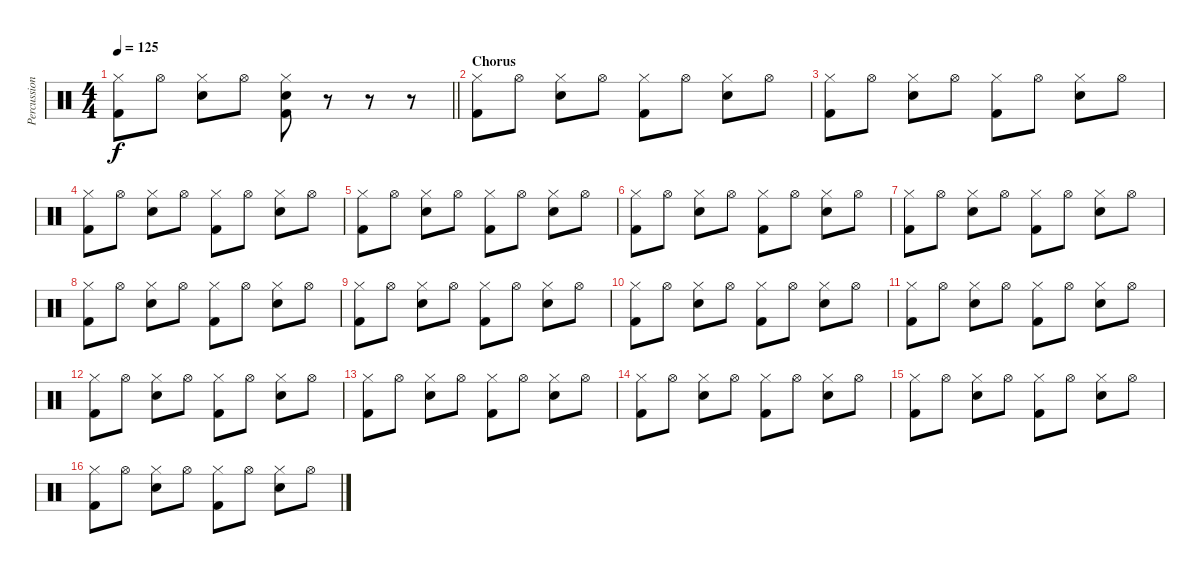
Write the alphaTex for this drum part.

\track ("Percussion" "Percussion") {instrument percussion}
\staff {score}
\articulation defaults
\ts (4 4)
\tempo 125
\clef neutral
\barLineRight lightlight
\ks c
("Hi-Hat (closed)" "Kick (hit) 2").8{dy f} "Hi-Hat (open)".8 ("Hi-Hat (closed)" "Snare (hit) 2").8 "Hi-Hat (open)".8 ("Hi-Hat (closed)" "Snare (hit) 2" "Kick (hit) 2").8 r.8 r.8 r.8 |
\section ("" "Chorus")
("Hi-Hat (closed)" "Kick (hit) 2").8 "Hi-Hat (open)".8 ("Hi-Hat (closed)" "Snare (hit) 2").8 "Hi-Hat (open)".8 ("Hi-Hat (closed)" "Kick (hit) 2").8 "Hi-Hat (open)".8 ("Hi-Hat (closed)" "Snare (hit) 2").8 "Hi-Hat (open)".8 |
("Hi-Hat (closed)" "Kick (hit) 2").8 "Hi-Hat (open)".8 ("Hi-Hat (closed)" "Snare (hit) 2").8 "Hi-Hat (open)".8 ("Hi-Hat (closed)" "Kick (hit) 2").8 "Hi-Hat (open)".8 ("Hi-Hat (closed)" "Snare (hit) 2").8 "Hi-Hat (open)".8 |
("Hi-Hat (closed)" "Kick (hit) 2").8 "Hi-Hat (open)".8 ("Hi-Hat (closed)" "Snare (hit) 2").8 "Hi-Hat (open)".8 ("Hi-Hat (closed)" "Kick (hit) 2").8 "Hi-Hat (open)".8 ("Hi-Hat (closed)" "Snare (hit) 2").8 "Hi-Hat (open)".8 |
("Hi-Hat (closed)" "Kick (hit) 2").8 "Hi-Hat (open)".8 ("Hi-Hat (closed)" "Snare (hit) 2").8 "Hi-Hat (open)".8 ("Hi-Hat (closed)" "Kick (hit) 2").8 "Hi-Hat (open)".8 ("Hi-Hat (closed)" "Snare (hit) 2").8 "Hi-Hat (open)".8 |
("Hi-Hat (closed)" "Kick (hit) 2").8 "Hi-Hat (open)".8 ("Hi-Hat (closed)" "Snare (hit) 2").8 "Hi-Hat (open)".8 ("Hi-Hat (closed)" "Kick (hit) 2").8 "Hi-Hat (open)".8 ("Hi-Hat (closed)" "Snare (hit) 2").8 "Hi-Hat (open)".8 |
("Hi-Hat (closed)" "Kick (hit) 2").8 "Hi-Hat (open)".8 ("Hi-Hat (closed)" "Snare (hit) 2").8 "Hi-Hat (open)".8 ("Hi-Hat (closed)" "Kick (hit) 2").8 "Hi-Hat (open)".8 ("Hi-Hat (closed)" "Snare (hit) 2").8 "Hi-Hat (open)".8 |
("Hi-Hat (closed)" "Kick (hit) 2").8 "Hi-Hat (open)".8 ("Hi-Hat (closed)" "Snare (hit) 2").8 "Hi-Hat (open)".8 ("Hi-Hat (closed)" "Kick (hit) 2").8 "Hi-Hat (open)".8 ("Hi-Hat (closed)" "Snare (hit) 2").8 "Hi-Hat (open)".8 |
("Hi-Hat (closed)" "Kick (hit) 2").8 "Hi-Hat (open)".8 ("Hi-Hat (closed)" "Snare (hit) 2").8 "Hi-Hat (open)".8 ("Hi-Hat (closed)" "Kick (hit) 2").8 "Hi-Hat (open)".8 ("Hi-Hat (closed)" "Snare (hit) 2").8 "Hi-Hat (open)".8 |
("Hi-Hat (closed)" "Kick (hit) 2").8 "Hi-Hat (open)".8 ("Hi-Hat (closed)" "Snare (hit) 2").8 "Hi-Hat (open)".8 ("Hi-Hat (closed)" "Kick (hit) 2").8 "Hi-Hat (open)".8 ("Hi-Hat (closed)" "Snare (hit) 2").8 "Hi-Hat (open)".8 |
("Hi-Hat (closed)" "Kick (hit) 2").8 "Hi-Hat (open)".8 ("Hi-Hat (closed)" "Snare (hit) 2").8 "Hi-Hat (open)".8 ("Hi-Hat (closed)" "Kick (hit) 2").8 "Hi-Hat (open)".8 ("Hi-Hat (closed)" "Snare (hit) 2").8 "Hi-Hat (open)".8 |
("Hi-Hat (closed)" "Kick (hit) 2").8 "Hi-Hat (open)".8 ("Hi-Hat (closed)" "Snare (hit) 2").8 "Hi-Hat (open)".8 ("Hi-Hat (closed)" "Kick (hit) 2").8 "Hi-Hat (open)".8 ("Hi-Hat (closed)" "Snare (hit) 2").8 "Hi-Hat (open)".8 |
("Hi-Hat (closed)" "Kick (hit) 2").8 "Hi-Hat (open)".8 ("Hi-Hat (closed)" "Snare (hit) 2").8 "Hi-Hat (open)".8 ("Hi-Hat (closed)" "Kick (hit) 2").8 "Hi-Hat (open)".8 ("Hi-Hat (closed)" "Snare (hit) 2").8 "Hi-Hat (open)".8 |
("Hi-Hat (closed)" "Kick (hit) 2").8 "Hi-Hat (open)".8 ("Hi-Hat (closed)" "Snare (hit) 2").8 "Hi-Hat (open)".8 ("Hi-Hat (closed)" "Kick (hit) 2").8 "Hi-Hat (open)".8 ("Hi-Hat (closed)" "Snare (hit) 2").8 "Hi-Hat (open)".8 |
("Hi-Hat (closed)" "Kick (hit) 2").8 "Hi-Hat (open)".8 ("Hi-Hat (closed)" "Snare (hit) 2").8 "Hi-Hat (open)".8 ("Hi-Hat (closed)" "Kick (hit) 2").8 "Hi-Hat (open)".8 ("Hi-Hat (closed)" "Snare (hit) 2").8 "Hi-Hat (open)".8 |
("Hi-Hat (closed)" "Kick (hit) 2").8 "Hi-Hat (open)".8 ("Hi-Hat (closed)" "Snare (hit) 2").8 "Hi-Hat (open)".8 ("Hi-Hat (closed)" "Kick (hit) 2").8 "Hi-Hat (open)".8 ("Hi-Hat (closed)" "Snare (hit) 2").8 "Hi-Hat (open)".8
